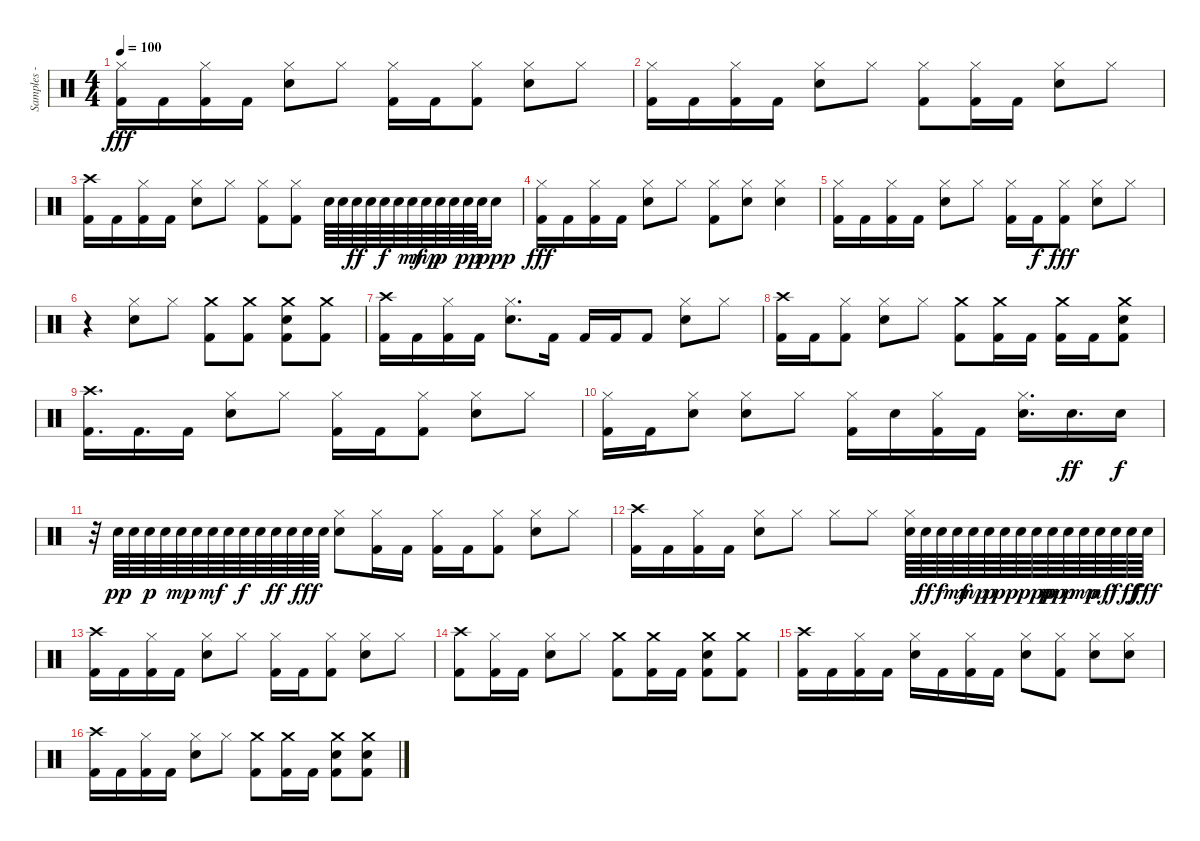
\track ("Samples - Joe Hahn" "Samples - ") {instrument percussion}
\staff {score}
\articulation defaults
\ts (4 4)
\tempo 100
\clef neutral
\ks c
("Hi-Hat (closed)" "Kick (hit) 2").16{dy fff} "Kick (hit) 2".16 ("Hi-Hat (closed)" "Kick (hit) 2").16 "Kick (hit) 2".16 ("Hi-Hat (closed)" "Electric Snare (hit)").8 "Hi-Hat (closed)".8 ("Hi-Hat (closed)" "Kick (hit) 2").16 "Kick (hit) 2".16 ("Hi-Hat (closed)" "Kick (hit) 2").8 ("Hi-Hat (closed)" "Electric Snare (hit)").8 "Hi-Hat (closed)".8 |
("Hi-Hat (closed)" "Kick (hit) 2").16 "Kick (hit) 2".16 ("Hi-Hat (closed)" "Kick (hit) 2").16 "Kick (hit) 2".16 ("Hi-Hat (closed)" "Electric Snare (hit)").8 "Hi-Hat (closed)".8 ("Hi-Hat (closed)" "Kick (hit) 2").8 ("Hi-Hat (closed)" "Kick (hit) 2").16 "Kick (hit) 2".16 ("Hi-Hat (closed)" "Electric Snare (hit)").8 "Hi-Hat (closed)".8 |
("Crash high (hit)" "Kick (hit) 2").16 "Kick (hit) 2".16 ("Hi-Hat (closed)" "Kick (hit) 2").16 "Kick (hit) 2".16 ("Hi-Hat (closed)" "Electric Snare (hit)").8 "Hi-Hat (closed)".8 ("Hi-Hat (closed)" "Kick (hit) 2").8 ("Hi-Hat (closed)" "Kick (hit) 2").8 "Electric Snare (hit)".64 "Electric Snare (hit)".64 "Electric Snare (hit)".64{dy ff} "Electric Snare (hit)".64 "Electric Snare (hit)".64{dy f} "Electric Snare (hit)".64 "Electric Snare (hit)".64{dy mf} "Electric Snare (hit)".64{dy mp} "Electric Snare (hit)".64{dy p} "Electric Snare (hit)".64 "Electric Snare (hit)".64{dy pp} "Electric Snare (hit)".64 "Electric Snare (hit)".16{dy ppp} |
("Hi-Hat (closed)" "Kick (hit) 2").16{dy fff} "Kick (hit) 2".16 ("Hi-Hat (closed)" "Kick (hit) 2").16 "Kick (hit) 2".16 ("Hi-Hat (closed)" "Electric Snare (hit)").8 "Hi-Hat (closed)".8 ("Hi-Hat (closed)" "Kick (hit) 2").8 ("Hi-Hat (closed)" "Electric Snare (hit)").8 ("Hi-Hat (closed)" "Electric Snare (hit)").4 |
("Hi-Hat (closed)" "Kick (hit) 2").16 "Kick (hit) 2".16 ("Hi-Hat (closed)" "Kick (hit) 2").16 "Kick (hit) 2".16 ("Hi-Hat (closed)" "Electric Snare (hit)").8 "Hi-Hat (closed)".8 ("Hi-Hat (closed)" "Kick (hit) 2").16 "Kick (hit) 2".16{dy f} ("Hi-Hat (closed)" "Kick (hit) 2").8{dy fff} ("Hi-Hat (closed)" "Electric Snare (hit)").8 "Hi-Hat (closed)".8 |
r.4 ("Hi-Hat (closed)" "Electric Snare (hit)").8 "Hi-Hat (closed)".8 ("Crash medium (hit)" "Kick (hit) 2").8 ("Crash medium (hit)" "Kick (hit) 2").8 ("Crash medium (hit)" "Electric Snare (hit)" "Kick (hit) 2").8 ("Crash medium (hit)" "Kick (hit) 2").8 |
("Crash high (hit)" "Kick (hit) 2").16 "Kick (hit) 2".16 ("Hi-Hat (closed)" "Kick (hit) 2").16 "Kick (hit) 2".16 ("Hi-Hat (closed)" "Electric Snare (hit)").8{d} "Kick (hit) 2".16 "Kick (hit) 2".16 "Kick (hit) 2".16 "Kick (hit) 2".8 ("Hi-Hat (closed)" "Electric Snare (hit)").8 "Hi-Hat (closed)".8 |
("Crash high (hit)" "Kick (hit) 2").16 "Kick (hit) 2".16 ("Hi-Hat (closed)" "Kick (hit) 2").8 ("Hi-Hat (closed)" "Electric Snare (hit)").8 "Hi-Hat (closed)".8 ("Crash medium (hit)" "Kick (hit) 2").8 ("Crash medium (hit)" "Kick (hit) 2").16 "Kick (hit) 2".16 ("Crash medium (hit)" "Kick (hit) 2").16 "Kick (hit) 2".16 ("Crash medium (hit)" "Electric Snare (hit)" "Kick (hit) 2").8 |
("Crash high (hit)" "Kick (hit) 2").16{d} "Kick (hit) 2".16{d} "Kick (hit) 2".16 ("Hi-Hat (closed)" "Electric Snare (hit)").8 "Hi-Hat (closed)".8 ("Hi-Hat (closed)" "Kick (hit) 2").16 "Kick (hit) 2".16 ("Hi-Hat (closed)" "Kick (hit) 2").8 ("Hi-Hat (closed)" "Electric Snare (hit)").8 "Hi-Hat (closed)".8 |
("Hi-Hat (closed)" "Kick (hit) 2").16 "Kick (hit) 2".16 ("Hi-Hat (closed)" "Electric Snare (hit)").8 ("Hi-Hat (closed)" "Electric Snare (hit)").8 "Hi-Hat (closed)".8 ("Hi-Hat (closed)" "Kick (hit) 2").16 "Electric Snare (hit)".16 ("Hi-Hat (closed)" "Kick (hit) 2").16 "Kick (hit) 2".16 ("Hi-Hat (closed)" "Electric Snare (hit)").16{d} "Electric Snare (hit)".16{d dy ff} "Electric Snare (hit)".16{dy f} |
r.32 "Electric Snare (hit)".64{dy pp} "Electric Snare (hit)".64 "Electric Snare (hit)".64{dy p} "Electric Snare (hit)".64 "Electric Snare (hit)".64{dy mp} "Electric Snare (hit)".64 "Electric Snare (hit)".64{dy mf} "Electric Snare (hit)".64 "Electric Snare (hit)".64{dy f} "Electric Snare (hit)".64 "Electric Snare (hit)".64{dy ff} "Electric Snare (hit)".64 "Electric Snare (hit)".64{dy fff} "Electric Snare (hit)".64 ("Hi-Hat (closed)" "Electric Snare (hit)").8 ("Hi-Hat (closed)" "Kick (hit) 2").16 "Kick (hit) 2".16 ("Hi-Hat (closed)" "Kick (hit) 2").16 "Kick (hit) 2".16 ("Hi-Hat (closed)" "Kick (hit) 2").8 ("Hi-Hat (closed)" "Electric Snare (hit)").8 "Hi-Hat (closed)".8 |
("Crash high (hit)" "Kick (hit) 2").16 "Kick (hit) 2".16 ("Hi-Hat (closed)" "Kick (hit) 2").16 "Kick (hit) 2".16 ("Hi-Hat (closed)" "Electric Snare (hit)").8 "Hi-Hat (closed)".8 "Hi-Hat (closed)".8 "Hi-Hat (closed)".8 ("Hi-Hat (closed)" "Electric Snare (hit)").64 "Electric Snare (hit)".64{dy ff} "Electric Snare (hit)".64{dy f} "Electric Snare (hit)".64{dy mf} "Electric Snare (hit)".64{dy mp} "Electric Snare (hit)".64{dy p} "Electric Snare (hit)".64{dy pp} "Electric Snare (hit)".64 "Electric Snare (hit)".64{dy ppp} "Electric Snare (hit)".64{dy pp} "Electric Snare (hit)".64{dy p} "Electric Snare (hit)".64{dy mp} "Electric Snare (hit)".64{dy mf} "Electric Snare (hit)".64{dy f} "Electric Snare (hit)".64{dy ff} "Electric Snare (hit)".64{dy fff} |
("Crash high (hit)" "Kick (hit) 2").16 "Kick (hit) 2".16 ("Hi-Hat (closed)" "Kick (hit) 2").16 "Kick (hit) 2".16 ("Hi-Hat (closed)" "Electric Snare (hit)").8 "Hi-Hat (closed)".8 ("Hi-Hat (closed)" "Kick (hit) 2").16 "Kick (hit) 2".16 ("Hi-Hat (closed)" "Kick (hit) 2").8 ("Hi-Hat (closed)" "Electric Snare (hit)").8 "Hi-Hat (closed)".8 |
("Crash high (hit)" "Kick (hit) 2").8 ("Hi-Hat (closed)" "Kick (hit) 2").16 "Kick (hit) 2".16 ("Hi-Hat (closed)" "Electric Snare (hit)").8 "Hi-Hat (closed)".8 ("Crash medium (hit)" "Kick (hit) 2").8 ("Crash medium (hit)" "Kick (hit) 2").16 "Kick (hit) 2".16 ("Crash medium (hit)" "Electric Snare (hit)" "Kick (hit) 2").8 ("Crash medium (hit)" "Kick (hit) 2").8 |
("Crash high (hit)" "Kick (hit) 2").16 "Kick (hit) 2".16 ("Hi-Hat (closed)" "Kick (hit) 2").16 "Kick (hit) 2".16 ("Hi-Hat (closed)" "Electric Snare (hit)").16 "Kick (hit) 2".16 ("Hi-Hat (closed)" "Kick (hit) 2").16 "Kick (hit) 2".16 ("Hi-Hat (closed)" "Electric Snare (hit)").8 ("Hi-Hat (closed)" "Kick (hit) 2").8 ("Hi-Hat (closed)" "Electric Snare (hit)").8 ("Hi-Hat (closed)" "Electric Snare (hit)").8 |
("Crash high (hit)" "Kick (hit) 2").16 "Kick (hit) 2".16 ("Hi-Hat (closed)" "Kick (hit) 2").16 "Kick (hit) 2".16 ("Hi-Hat (closed)" "Electric Snare (hit)").8 "Hi-Hat (closed)".8 ("Crash medium (hit)" "Kick (hit) 2").8 ("Crash medium (hit)" "Kick (hit) 2").16 "Kick (hit) 2".16 ("Crash medium (hit)" "Electric Snare (hit)" "Kick (hit) 2").8 ("Crash medium (hit)" "Electric Snare (hit)" "Kick (hit) 2").8
